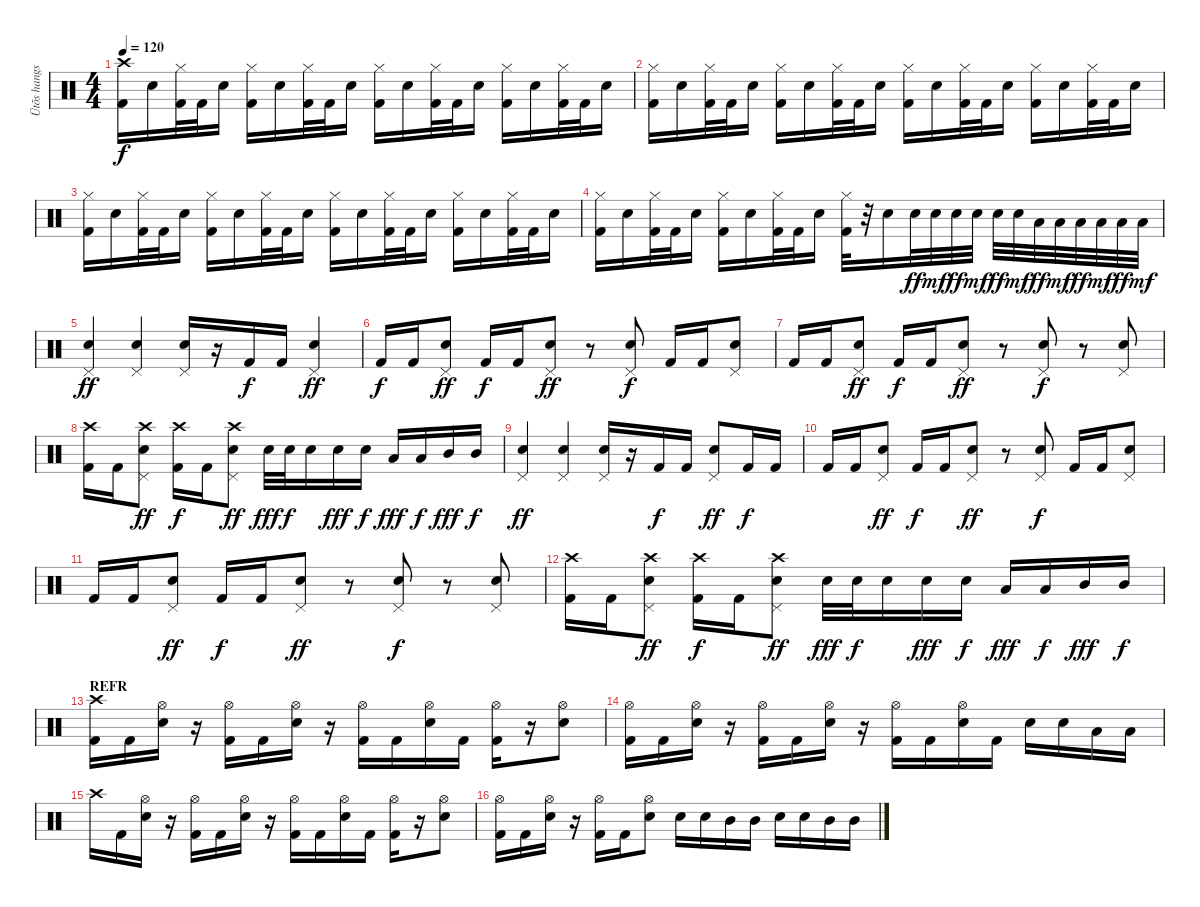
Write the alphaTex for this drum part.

\track ("Ütõs hangszer" "Ütõs hangs") {instrument percussion}
\staff {score}
\articulation defaults
\ts (4 4)
\tempo 120
\clef neutral
\ks c
("Crash high (hit)" "Kick (hit) 2").16{dy f} "Snare (hit) 2".16 ("Hi-Hat (closed)" "Kick (hit) 2").32 "Kick (hit) 2".32 "Snare (hit) 2".16 ("Hi-Hat (closed)" "Kick (hit) 2").16 "Snare (hit) 2".16 ("Hi-Hat (closed)" "Kick (hit) 2").32 "Kick (hit) 2".32 "Snare (hit) 2".16 ("Hi-Hat (closed)" "Kick (hit) 2").16 "Snare (hit) 2".16 ("Hi-Hat (closed)" "Kick (hit) 2").32 "Kick (hit) 2".32 "Snare (hit) 2".16 ("Hi-Hat (closed)" "Kick (hit) 2").16 "Snare (hit) 2".16 ("Hi-Hat (closed)" "Kick (hit) 2").32 "Kick (hit) 2".32 "Snare (hit) 2".16 |
("Hi-Hat (closed)" "Kick (hit) 2").16 "Snare (hit) 2".16 ("Hi-Hat (closed)" "Kick (hit) 2").32 "Kick (hit) 2".32 "Snare (hit) 2".16 ("Hi-Hat (closed)" "Kick (hit) 2").16 "Snare (hit) 2".16 ("Hi-Hat (closed)" "Kick (hit) 2").32 "Kick (hit) 2".32 "Snare (hit) 2".16 ("Hi-Hat (closed)" "Kick (hit) 2").16 "Snare (hit) 2".16 ("Hi-Hat (closed)" "Kick (hit) 2").32 "Kick (hit) 2".32 "Snare (hit) 2".16 ("Hi-Hat (closed)" "Kick (hit) 2").16 "Snare (hit) 2".16 ("Hi-Hat (closed)" "Kick (hit) 2").32 "Kick (hit) 2".32 "Snare (hit) 2".16 |
("Hi-Hat (closed)" "Kick (hit) 2").16 "Snare (hit) 2".16 ("Hi-Hat (closed)" "Kick (hit) 2").32 "Kick (hit) 2".32 "Snare (hit) 2".16 ("Hi-Hat (closed)" "Kick (hit) 2").16 "Snare (hit) 2".16 ("Hi-Hat (closed)" "Kick (hit) 2").32 "Kick (hit) 2".32 "Snare (hit) 2".16 ("Hi-Hat (closed)" "Kick (hit) 2").16 "Snare (hit) 2".16 ("Hi-Hat (closed)" "Kick (hit) 2").32 "Kick (hit) 2".32 "Snare (hit) 2".16 ("Hi-Hat (closed)" "Kick (hit) 2").16 "Snare (hit) 2".16 ("Hi-Hat (closed)" "Kick (hit) 2").32 "Kick (hit) 2".32 "Snare (hit) 2".16 |
("Hi-Hat (closed)" "Kick (hit) 2").16 "Snare (hit) 2".16 ("Hi-Hat (closed)" "Kick (hit) 2").32 "Kick (hit) 2".32 "Snare (hit) 2".16 ("Hi-Hat (closed)" "Kick (hit) 2").16 "Snare (hit) 2".16 ("Hi-Hat (closed)" "Kick (hit) 2").32 "Kick (hit) 2".32 "Snare (hit) 2".16 ("Hi-Hat (closed)" "Kick (hit) 2").32 r.32 "Snare (hit) 2".16 "Snare (hit) 2".32{dy ff} "Snare (hit) 2".32{dy mf} "Snare (hit) 2".32{dy ff} "Snare (hit) 2".32{dy mf} "Snare (hit) 2".32{dy ff} "Snare (hit) 2".32{dy mf} "Low Tom (hit)".32{dy ff} "Low Tom (hit)".32{dy mf} "Low Tom (hit)".32{dy ff} "Low Tom (hit)".32{dy mf} "Low Tom (hit)".32{dy ff} "Low Tom (hit)".32{dy mf} |
("Pedal Hi-Hat (hit)" "Snare (hit) 2").4{dy ff} ("Pedal Hi-Hat (hit)" "Snare (hit) 2").4 ("Pedal Hi-Hat (hit)" "Snare (hit) 2").16 r.16 "Kick (hit) 2".16{dy f} "Kick (hit) 2".16 ("Pedal Hi-Hat (hit)" "Snare (hit) 2").4{dy ff} |
"Kick (hit) 2".16{dy f} "Kick (hit) 2".16 ("Pedal Hi-Hat (hit)" "Snare (hit) 2").8{dy ff} "Kick (hit) 2".16{dy f} "Kick (hit) 2".16 ("Pedal Hi-Hat (hit)" "Snare (hit) 2").8{dy ff} r.8 ("Snare (hit) 2" "Pedal Hi-Hat (hit)").8{dy f} "Kick (hit) 2".16 "Kick (hit) 2".16 ("Snare (hit) 2" "Pedal Hi-Hat (hit)").8 |
"Kick (hit) 2".16 "Kick (hit) 2".16 ("Pedal Hi-Hat (hit)" "Snare (hit) 2").8{dy ff} "Kick (hit) 2".16{dy f} "Kick (hit) 2".16 ("Pedal Hi-Hat (hit)" "Snare (hit) 2").8{dy ff} r.8 ("Pedal Hi-Hat (hit)" "Snare (hit) 2").8{dy f} r.8 ("Pedal Hi-Hat (hit)" "Snare (hit) 2").8 |
("Crash high (hit)" "Kick (hit) 2").16 "Kick (hit) 2".16 ("Crash high (hit)" "Pedal Hi-Hat (hit)" "Snare (hit) 2").8{dy ff} ("Crash high (hit)" "Kick (hit) 2").16{dy f} "Kick (hit) 2".16 ("Crash high (hit)" "Pedal Hi-Hat (hit)" "Snare (hit) 2").8{dy ff} "Snare (hit) 2".32{dy fff} "Snare (hit) 2".32{dy f} "Snare (hit) 2".16 "Snare (hit) 2".16{dy fff} "Snare (hit) 2".16{dy f} "Low Tom (hit)".16{dy fff} "Low Tom (hit)".16{dy f} "Mid Tom (hit)".16{dy fff} "Mid Tom (hit)".16{dy f} |
("Pedal Hi-Hat (hit)" "Snare (hit) 2").4{dy ff} ("Pedal Hi-Hat (hit)" "Snare (hit) 2").4 ("Pedal Hi-Hat (hit)" "Snare (hit) 2").16 r.16 "Kick (hit) 2".16{dy f} "Kick (hit) 2".16 ("Pedal Hi-Hat (hit)" "Snare (hit) 2").8{dy ff} "Kick (hit) 2".16{dy f} "Kick (hit) 2".16 |
"Kick (hit) 2".16 "Kick (hit) 2".16 ("Pedal Hi-Hat (hit)" "Snare (hit) 2").8{dy ff} "Kick (hit) 2".16{dy f} "Kick (hit) 2".16 ("Pedal Hi-Hat (hit)" "Snare (hit) 2").8{dy ff} r.8 ("Snare (hit) 2" "Pedal Hi-Hat (hit)").8{dy f} "Kick (hit) 2".16 "Kick (hit) 2".16 ("Snare (hit) 2" "Pedal Hi-Hat (hit)").8 |
"Kick (hit) 2".16 "Kick (hit) 2".16 ("Pedal Hi-Hat (hit)" "Snare (hit) 2").8{dy ff} "Kick (hit) 2".16{dy f} "Kick (hit) 2".16 ("Pedal Hi-Hat (hit)" "Snare (hit) 2").8{dy ff} r.8 ("Pedal Hi-Hat (hit)" "Snare (hit) 2").8{dy f} r.8 ("Pedal Hi-Hat (hit)" "Snare (hit) 2").8 |
("Crash high (hit)" "Kick (hit) 2").16 "Kick (hit) 2".16 ("Crash high (hit)" "Pedal Hi-Hat (hit)" "Snare (hit) 2").8{dy ff} ("Crash high (hit)" "Kick (hit) 2").16{dy f} "Kick (hit) 2".16 ("Crash high (hit)" "Pedal Hi-Hat (hit)" "Snare (hit) 2").8{dy ff} "Snare (hit) 2".32{dy fff} "Snare (hit) 2".32{dy f} "Snare (hit) 2".16 "Snare (hit) 2".16{dy fff} "Snare (hit) 2".16{dy f} "Low Tom (hit)".16{dy fff} "Low Tom (hit)".16{dy f} "Mid Tom (hit)".16{dy fff} "Mid Tom (hit)".16{dy f} |
\section ("" "REFR")
("Crash high (hit)" "Kick (hit) 2").16 "Kick (hit) 2".16 ("Hi-Hat (open)" "Snare (hit) 2").16 r.16 ("Hi-Hat (open)" "Kick (hit) 2").16 "Kick (hit) 2".16 ("Hi-Hat (open)" "Snare (hit) 2").16 r.16 ("Hi-Hat (open)" "Kick (hit) 2").16 "Kick (hit) 2".16 ("Hi-Hat (open)" "Snare (hit) 2").16 "Kick (hit) 2".16 ("Hi-Hat (open)" "Kick (hit) 2").16 r.16 ("Hi-Hat (open)" "Snare (hit) 2").8 |
("Hi-Hat (open)" "Kick (hit) 2").16 "Kick (hit) 2".16 ("Hi-Hat (open)" "Snare (hit) 2").16 r.16 ("Hi-Hat (open)" "Kick (hit) 2").16 "Kick (hit) 2".16 ("Hi-Hat (open)" "Snare (hit) 2").16 r.16 ("Hi-Hat (open)" "Kick (hit) 2").16 "Kick (hit) 2".16 ("Hi-Hat (open)" "Snare (hit) 2").16 "Kick (hit) 2".16 "Snare (hit) 2".16 "Snare (hit) 2".16 "Low Tom (hit)".16 "Low Tom (hit)".16 |
"Crash high (hit)".16 "Kick (hit) 2".16 ("Hi-Hat (open)" "Snare (hit) 2").16 r.16 ("Hi-Hat (open)" "Kick (hit) 2").16 "Kick (hit) 2".16 ("Hi-Hat (open)" "Snare (hit) 2").16 r.16 ("Hi-Hat (open)" "Kick (hit) 2").16 "Kick (hit) 2".16 ("Hi-Hat (open)" "Snare (hit) 2").16 "Kick (hit) 2".16 ("Hi-Hat (open)" "Kick (hit) 2").16 r.16 ("Hi-Hat (open)" "Snare (hit) 2").8 |
("Hi-Hat (open)" "Kick (hit) 2").16 "Kick (hit) 2".16 ("Hi-Hat (open)" "Snare (hit) 2").16 r.16 ("Hi-Hat (open)" "Kick (hit) 2").16 "Kick (hit) 2".16 ("Hi-Hat (open)" "Snare (hit) 2").8 "Snare (hit) 2".16 "Snare (hit) 2".16 "Mid Tom (hit)".16 "Mid Tom (hit)".16 "Snare (hit) 2".16 "Snare (hit) 2".16 "Mid Tom (hit)".16 "Mid Tom (hit)".16
